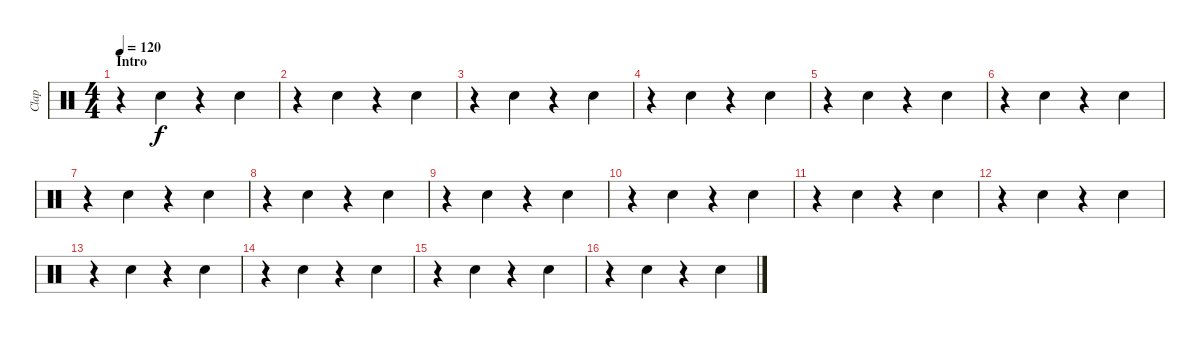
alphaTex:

\track ("Clap" "Clap") {instrument percussion}
\staff {score}
\articulation defaults
\ts (4 4)
\section ("" "Intro")
\tempo 120
\clef neutral
\ks c
r.4{dy f} "Hand Clap (hit)".4 r.4 "Hand Clap (hit)".4 |
r.4 "Hand Clap (hit)".4 r.4 "Hand Clap (hit)".4 |
r.4 "Hand Clap (hit)".4 r.4 "Hand Clap (hit)".4 |
r.4 "Hand Clap (hit)".4 r.4 "Hand Clap (hit)".4 |
r.4 "Hand Clap (hit)".4 r.4 "Hand Clap (hit)".4 |
r.4 "Hand Clap (hit)".4 r.4 "Hand Clap (hit)".4 |
r.4 "Hand Clap (hit)".4 r.4 "Hand Clap (hit)".4 |
r.4 "Hand Clap (hit)".4 r.4 "Hand Clap (hit)".4 |
r.4 "Hand Clap (hit)".4 r.4 "Hand Clap (hit)".4 |
r.4 "Hand Clap (hit)".4 r.4 "Hand Clap (hit)".4 |
r.4 "Hand Clap (hit)".4 r.4 "Hand Clap (hit)".4 |
r.4 "Hand Clap (hit)".4 r.4 "Hand Clap (hit)".4 |
r.4 "Hand Clap (hit)".4 r.4 "Hand Clap (hit)".4 |
r.4 "Hand Clap (hit)".4 r.4 "Hand Clap (hit)".4 |
r.4 "Hand Clap (hit)".4 r.4 "Hand Clap (hit)".4 |
r.4 "Hand Clap (hit)".4 r.4 "Hand Clap (hit)".4
